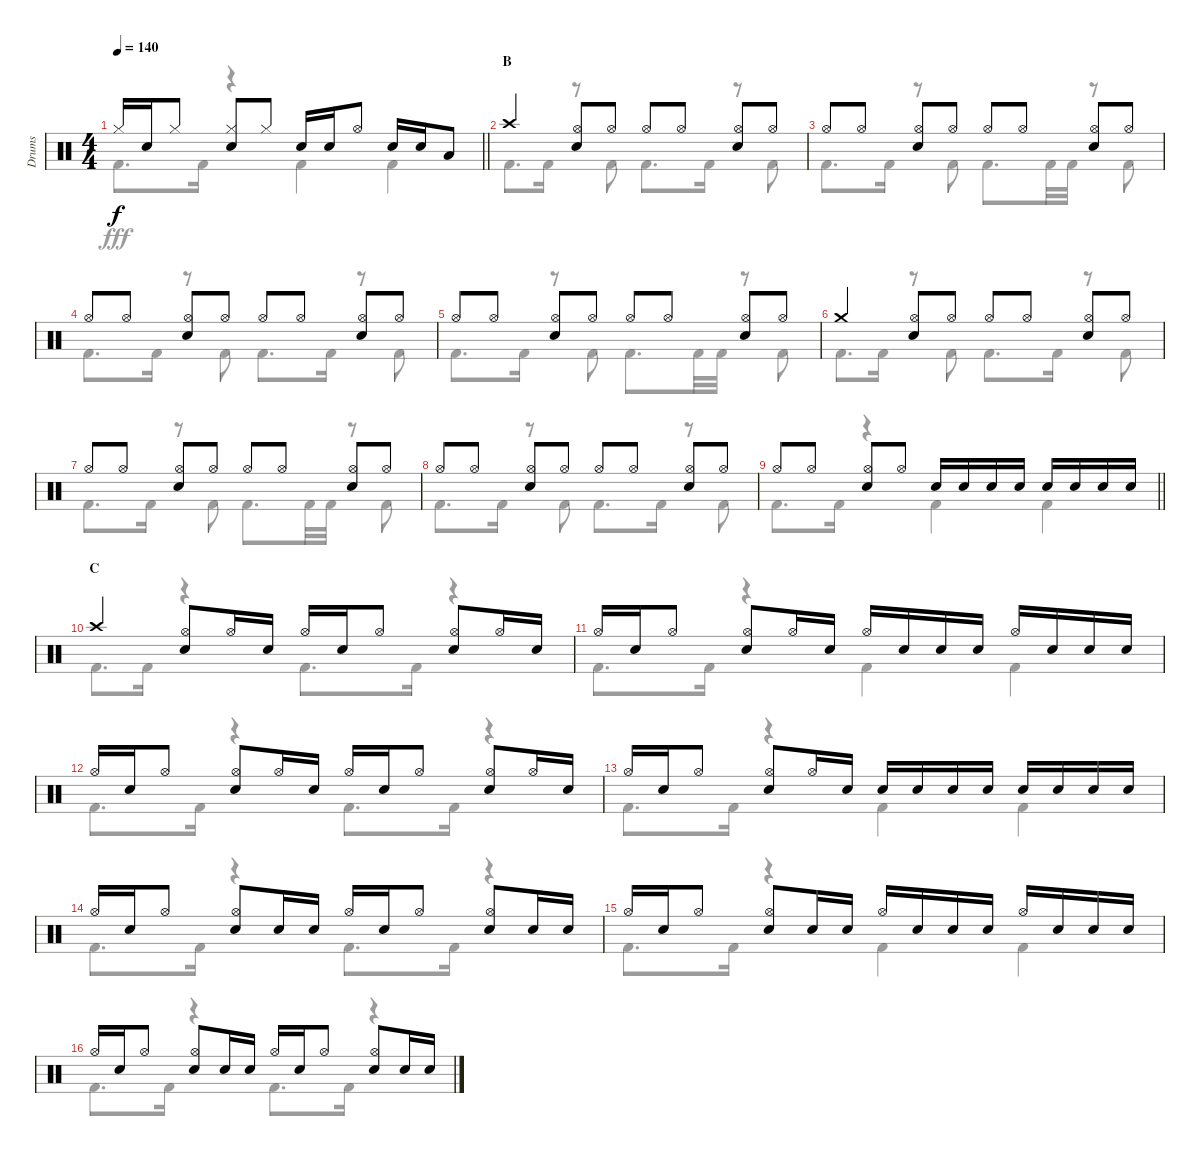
\track ("Drums" "Drums") {instrument percussion}
\staff {score}
\articulation defaults
\voice
\ts (4 4)
\tempo 140
\clef neutral
\barLineRight lightlight
\ks c "Hi-Hat (closed)".16{dy f} "Snare (hit) 2".16 "Hi-Hat (closed)".8
("Hi-Hat (closed)" "Snare (hit) 2").8 "Hi-Hat (closed)".8 "Snare (hit) 2".16 "Snare (hit) 2".16 "Hi-Hat (open)".8 "Snare (hit) 2".16 "Snare (hit) 2".16 "Low Tom (hit)".8 |
\section ("" "B")
"Crash high (hit)".4 ("Hi-Hat (open)" "Snare (hit) 2").8 "Hi-Hat (open)".8 "Hi-Hat (open)".8 "Hi-Hat (open)".8 ("Hi-Hat (open)" "Snare (hit) 2").8 "Hi-Hat (open)".8 |
"Hi-Hat (open)".8 "Hi-Hat (open)".8 ("Hi-Hat (open)" "Snare (hit) 2").8 "Hi-Hat (open)".8 "Hi-Hat (open)".8 "Hi-Hat (open)".8 ("Hi-Hat (open)" "Snare (hit) 2").8 "Hi-Hat (open)".8 |
"Hi-Hat (open)".8 "Hi-Hat (open)".8 ("Hi-Hat (open)" "Snare (hit) 2").8 "Hi-Hat (open)".8 "Hi-Hat (open)".8 "Hi-Hat (open)".8 ("Hi-Hat (open)" "Snare (hit) 2").8 "Hi-Hat (open)".8 |
"Hi-Hat (open)".8 "Hi-Hat (open)".8 ("Hi-Hat (open)" "Snare (hit) 2").8 "Hi-Hat (open)".8 "Hi-Hat (open)".8 "Hi-Hat (open)".8 ("Hi-Hat (open)" "Snare (hit) 2").8 "Hi-Hat (open)".8 |
"Crash medium (hit)".4 ("Hi-Hat (open)" "Snare (hit) 2").8 "Hi-Hat (open)".8 "Hi-Hat (open)".8 "Hi-Hat (open)".8 ("Hi-Hat (open)" "Snare (hit) 2").8 "Hi-Hat (open)".8 |
"Hi-Hat (open)".8 "Hi-Hat (open)".8 ("Hi-Hat (open)" "Snare (hit) 2").8 "Hi-Hat (open)".8 "Hi-Hat (open)".8 "Hi-Hat (open)".8 ("Hi-Hat (open)" "Snare (hit) 2").8 "Hi-Hat (open)".8 |
"Hi-Hat (open)".8 "Hi-Hat (open)".8 ("Hi-Hat (open)" "Snare (hit) 2").8 "Hi-Hat (open)".8 "Hi-Hat (open)".8 "Hi-Hat (open)".8 ("Hi-Hat (open)" "Snare (hit) 2").8 "Hi-Hat (open)".8 |
\barLineRight lightlight "Hi-Hat (open)".8 "Hi-Hat (open)".8
("Hi-Hat (open)" "Snare (hit) 2").8 "Hi-Hat (open)".8 "Snare (hit) 2".16 "Snare (hit) 2".16 "Snare (hit) 2".16 "Snare (hit) 2".16 "Snare (hit) 2".16 "Snare (hit) 2".16 "Snare (hit) 2".16 "Snare (hit) 2".16 |
\section ("" "C")
"Crash high (hit)".4 ("Hi-Hat (open)" "Snare (hit) 2").8 "Hi-Hat (open)".16 "Snare (hit) 2".16 "Hi-Hat (open)".16 "Snare (hit) 2".16 "Hi-Hat (open)".8 ("Hi-Hat (open)" "Snare (hit) 2").8 "Hi-Hat (open)".16 "Snare (hit) 2".16 |
"Hi-Hat (open)".16 "Snare (hit) 2".16 "Hi-Hat (open)".8 ("Hi-Hat (open)" "Snare (hit) 2").8 "Hi-Hat (open)".16 "Snare (hit) 2".16 "Hi-Hat (open)".16 "Snare (hit) 2".16 "Snare (hit) 2".16 "Snare (hit) 2".16 "Hi-Hat (open)".16 "Snare (hit) 2".16 "Snare (hit) 2".16 "Snare (hit) 2".16 |
"Hi-Hat (open)".16 "Snare (hit) 2".16 "Hi-Hat (open)".8 ("Hi-Hat (open)" "Snare (hit) 2").8 "Hi-Hat (open)".16 "Snare (hit) 2".16 "Hi-Hat (open)".16 "Snare (hit) 2".16 "Hi-Hat (open)".8 ("Hi-Hat (open)" "Snare (hit) 2").8 "Hi-Hat (open)".16 "Snare (hit) 2".16 |
"Hi-Hat (open)".16 "Snare (hit) 2".16 "Hi-Hat (open)".8 ("Hi-Hat (open)" "Snare (hit) 2").8 "Hi-Hat (open)".16 "Snare (hit) 2".16 "Snare (hit) 2".16 "Snare (hit) 2".16 "Snare (hit) 2".16 "Snare (hit) 2".16 "Snare (hit) 2".16 "Snare (hit) 2".16 "Snare (hit) 2".16 "Snare (hit) 2".16 |
"Hi-Hat (open)".16 "Snare (hit) 2".16 "Hi-Hat (open)".8 ("Hi-Hat (open)" "Snare (hit) 2").8 "Snare (hit) 2".16 "Snare (hit) 2".16 "Hi-Hat (open)".16 "Snare (hit) 2".16 "Hi-Hat (open)".8 ("Hi-Hat (open)" "Snare (hit) 2").8 "Snare (hit) 2".16 "Snare (hit) 2".16 |
"Hi-Hat (open)".16 "Snare (hit) 2".16 "Hi-Hat (open)".8 ("Hi-Hat (open)" "Snare (hit) 2").8 "Snare (hit) 2".16 "Snare (hit) 2".16 "Hi-Hat (open)".16 "Snare (hit) 2".16 "Snare (hit) 2".16 "Snare (hit) 2".16 "Hi-Hat (open)".16 "Snare (hit) 2".16 "Snare (hit) 2".16 "Snare (hit) 2".16 |
"Hi-Hat (open)".16 "Snare (hit) 2".16 "Hi-Hat (open)".8 ("Hi-Hat (open)" "Snare (hit) 2").8 "Snare (hit) 2".16 "Snare (hit) 2".16 "Hi-Hat (open)".16 "Snare (hit) 2".16 "Hi-Hat (open)".8 ("Hi-Hat (open)" "Snare (hit) 2").8 "Snare (hit) 2".16 "Snare (hit) 2".16
\voice
\clef neutral
\ottava regular
\simile none
\barLineRight lightlight
\ks c "Kick (hit) 2".8{d dy fff} "Kick (hit) 2".16
r.4 "Kick (hit) 2".4 "Kick (hit) 2".4 |
"Kick (hit) 2".8{d} "Kick (hit) 2".16 r.8 "Kick (hit) 2".8 "Kick (hit) 2".8{d} "Kick (hit) 2".16 r.8 "Kick (hit) 2".8 |
"Kick (hit) 2".8{d} "Kick (hit) 2".16 r.8 "Kick (hit) 2".8 "Kick (hit) 2".8{d} "Kick (hit) 2".32 "Kick (hit) 2".32 r.8 "Kick (hit) 2".8 |
"Kick (hit) 2".8{d} "Kick (hit) 2".16 r.8 "Kick (hit) 2".8 "Kick (hit) 2".8{d} "Kick (hit) 2".16 r.8 "Kick (hit) 2".8 |
"Kick (hit) 2".8{d} "Kick (hit) 2".16 r.8 "Kick (hit) 2".8 "Kick (hit) 2".8{d} "Kick (hit) 2".32 "Kick (hit) 2".32 r.8 "Kick (hit) 2".8 |
"Kick (hit) 2".8{d} "Kick (hit) 2".16 r.8 "Kick (hit) 2".8 "Kick (hit) 2".8{d} "Kick (hit) 2".16 r.8 "Kick (hit) 2".8 |
"Kick (hit) 2".8{d} "Kick (hit) 2".16 r.8 "Kick (hit) 2".8 "Kick (hit) 2".8{d} "Kick (hit) 2".32 "Kick (hit) 2".32 r.8 "Kick (hit) 2".8 |
"Kick (hit) 2".8{d} "Kick (hit) 2".16 r.8 "Kick (hit) 2".8 "Kick (hit) 2".8{d} "Kick (hit) 2".16 r.8 "Kick (hit) 2".8 |
\barLineRight lightlight "Kick (hit) 2".8{d} "Kick (hit) 2".16
r.4 "Kick (hit) 2".4 "Kick (hit) 2".4 |
"Kick (hit) 2".8{d} "Kick (hit) 2".16 r.4 "Kick (hit) 2".8{d} "Kick (hit) 2".16 r.4 |
"Kick (hit) 2".8{d} "Kick (hit) 2".16 r.4 "Kick (hit) 2".4 "Kick (hit) 2".4 |
"Kick (hit) 2".8{d} "Kick (hit) 2".16 r.4 "Kick (hit) 2".8{d} "Kick (hit) 2".16 r.4 |
"Kick (hit) 2".8{d} "Kick (hit) 2".16 r.4 "Kick (hit) 2".4 "Kick (hit) 2".4 |
"Kick (hit) 2".8{d} "Kick (hit) 2".16 r.4 "Kick (hit) 2".8{d} "Kick (hit) 2".16 r.4 |
"Kick (hit) 2".8{d} "Kick (hit) 2".16 r.4 "Kick (hit) 2".4 "Kick (hit) 2".4 |
"Kick (hit) 2".8{d} "Kick (hit) 2".16 r.4 "Kick (hit) 2".8{d} "Kick (hit) 2".16 r.4
